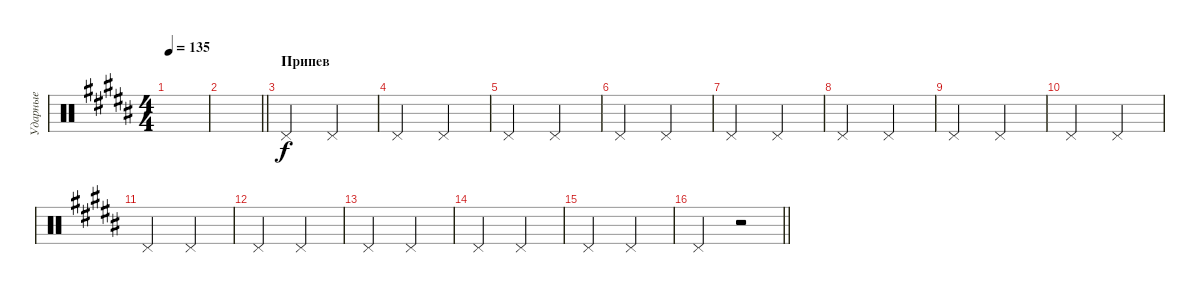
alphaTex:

\track ("Ударные" "Ударные") {instrument percussion}
\staff {score}
\articulation defaults
\ts (4 4)
\tempo 135
\clef neutral
\ks g#minor
|
\barLineRight lightlight
|
\section ("" "Припев")
"Pedal Hi-Hat (hit)".2 "Pedal Hi-Hat (hit)".2 |
"Pedal Hi-Hat (hit)".2 "Pedal Hi-Hat (hit)".2 |
"Pedal Hi-Hat (hit)".2 "Pedal Hi-Hat (hit)".2 |
"Pedal Hi-Hat (hit)".2 "Pedal Hi-Hat (hit)".2 |
"Pedal Hi-Hat (hit)".2 "Pedal Hi-Hat (hit)".2 |
"Pedal Hi-Hat (hit)".2 "Pedal Hi-Hat (hit)".2 |
"Pedal Hi-Hat (hit)".2 "Pedal Hi-Hat (hit)".2 |
"Pedal Hi-Hat (hit)".2 "Pedal Hi-Hat (hit)".2 |
"Pedal Hi-Hat (hit)".2 "Pedal Hi-Hat (hit)".2 |
"Pedal Hi-Hat (hit)".2 "Pedal Hi-Hat (hit)".2 |
"Pedal Hi-Hat (hit)".2 "Pedal Hi-Hat (hit)".2 |
"Pedal Hi-Hat (hit)".2 "Pedal Hi-Hat (hit)".2 |
"Pedal Hi-Hat (hit)".2 "Pedal Hi-Hat (hit)".2 |
\barLineRight lightlight "Pedal Hi-Hat (hit)".2
r.2
